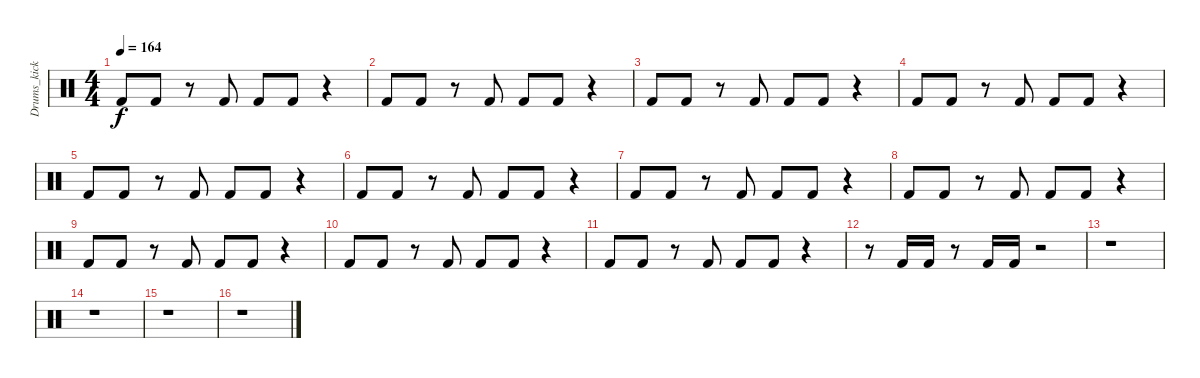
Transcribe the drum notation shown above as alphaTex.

\track ("Drums_kick" "Drums_kick") {instrument percussion}
\staff {score}
\articulation defaults
\ts (4 4)
\tempo 164
\clef neutral
\ks c "Kick (hit) 2".8{dy f} "Kick (hit) 2".8
r.8 "Kick (hit) 2".8 "Kick (hit) 2".8 "Kick (hit) 2".8 r.4 |
"Kick (hit) 2".8 "Kick (hit) 2".8 r.8 "Kick (hit) 2".8 "Kick (hit) 2".8 "Kick (hit) 2".8 r.4 |
"Kick (hit) 2".8 "Kick (hit) 2".8 r.8 "Kick (hit) 2".8 "Kick (hit) 2".8 "Kick (hit) 2".8 r.4 |
"Kick (hit) 2".8 "Kick (hit) 2".8 r.8 "Kick (hit) 2".8 "Kick (hit) 2".8 "Kick (hit) 2".8 r.4 |
"Kick (hit) 2".8 "Kick (hit) 2".8 r.8 "Kick (hit) 2".8 "Kick (hit) 2".8 "Kick (hit) 2".8 r.4 |
"Kick (hit) 2".8 "Kick (hit) 2".8 r.8 "Kick (hit) 2".8 "Kick (hit) 2".8 "Kick (hit) 2".8 r.4 |
"Kick (hit) 2".8 "Kick (hit) 2".8 r.8 "Kick (hit) 2".8 "Kick (hit) 2".8 "Kick (hit) 2".8 r.4 |
"Kick (hit) 2".8 "Kick (hit) 2".8 r.8 "Kick (hit) 2".8 "Kick (hit) 2".8 "Kick (hit) 2".8 r.4 |
"Kick (hit) 2".8 "Kick (hit) 2".8 r.8 "Kick (hit) 2".8 "Kick (hit) 2".8 "Kick (hit) 2".8 r.4 |
"Kick (hit) 2".8 "Kick (hit) 2".8 r.8 "Kick (hit) 2".8 "Kick (hit) 2".8 "Kick (hit) 2".8 r.4 |
"Kick (hit) 2".8 "Kick (hit) 2".8 r.8 "Kick (hit) 2".8 "Kick (hit) 2".8 "Kick (hit) 2".8 r.4 |
r.8 "Kick (hit) 2".16 "Kick (hit) 2".16 r.8 "Kick (hit) 2".16 "Kick (hit) 2".16 r.2 |
r.1 |
r.1 |
r.1 |
r.1
